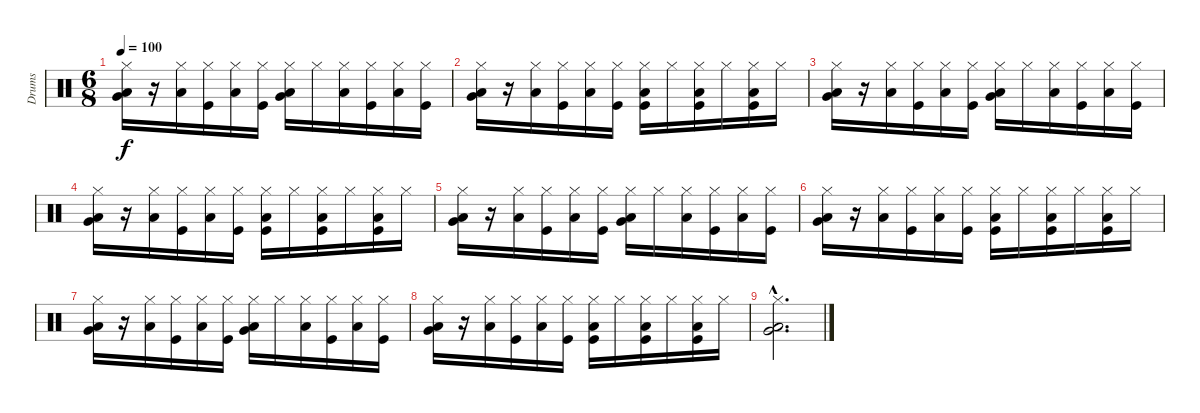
\track ("Drums" "Drums") {instrument percussion}
\staff {score}
\articulation defaults
\ts (6 8)
\tempo 100
\clef neutral
\ks c
("Hi-Hat (closed)" "Low Floor Tom (hit)" "Very Low Tom (hit)").16{dy f} r.16 ("Hi-Hat (closed)" "Low Floor Tom (hit)").16 ("Hi-Hat (closed)" "Kick (hit)").16 ("Hi-Hat (closed)" "Low Floor Tom (hit)").16 ("Hi-Hat (closed)" "Kick (hit)").16 ("Hi-Hat (closed)" "Low Floor Tom (hit)" "Very Low Tom (hit)").16 "Hi-Hat (closed)".16 ("Hi-Hat (closed)" "Low Floor Tom (hit)").16 ("Hi-Hat (closed)" "Kick (hit)").16 ("Hi-Hat (closed)" "Low Floor Tom (hit)").16 ("Hi-Hat (closed)" "Kick (hit)").16 |
("Hi-Hat (closed)" "Low Floor Tom (hit)" "Very Low Tom (hit)").16 r.16 ("Hi-Hat (closed)" "Low Floor Tom (hit)").16 ("Hi-Hat (closed)" "Kick (hit)").16 ("Hi-Hat (closed)" "Low Floor Tom (hit)").16 ("Hi-Hat (closed)" "Kick (hit)").16 ("Hi-Hat (closed)" "Low Floor Tom (hit)" "Kick (hit)").16 "Hi-Hat (closed)".16 ("Hi-Hat (closed)" "Low Floor Tom (hit)" "Kick (hit)").16 "Hi-Hat (closed)".16 ("Hi-Hat (closed)" "Low Floor Tom (hit)" "Kick (hit)").16 "Hi-Hat (closed)".16 |
("Hi-Hat (closed)" "Low Floor Tom (hit)" "Very Low Tom (hit)").16 r.16 ("Hi-Hat (closed)" "Low Floor Tom (hit)").16 ("Hi-Hat (closed)" "Kick (hit)").16 ("Hi-Hat (closed)" "Low Floor Tom (hit)").16 ("Hi-Hat (closed)" "Kick (hit)").16 ("Hi-Hat (closed)" "Low Floor Tom (hit)" "Very Low Tom (hit)").16 "Hi-Hat (closed)".16 ("Hi-Hat (closed)" "Low Floor Tom (hit)").16 ("Hi-Hat (closed)" "Kick (hit)").16 ("Hi-Hat (closed)" "Low Floor Tom (hit)").16 ("Hi-Hat (closed)" "Kick (hit)").16 |
("Hi-Hat (closed)" "Low Floor Tom (hit)" "Very Low Tom (hit)").16 r.16 ("Hi-Hat (closed)" "Low Floor Tom (hit)").16 ("Hi-Hat (closed)" "Kick (hit)").16 ("Hi-Hat (closed)" "Low Floor Tom (hit)").16 ("Hi-Hat (closed)" "Kick (hit)").16 ("Hi-Hat (closed)" "Low Floor Tom (hit)" "Kick (hit)").16 "Hi-Hat (closed)".16 ("Hi-Hat (closed)" "Low Floor Tom (hit)" "Kick (hit)").16 "Hi-Hat (closed)".16 ("Hi-Hat (closed)" "Low Floor Tom (hit)" "Kick (hit)").16 "Hi-Hat (closed)".16 |
("Hi-Hat (closed)" "Low Floor Tom (hit)" "Very Low Tom (hit)").16 r.16 ("Hi-Hat (closed)" "Low Floor Tom (hit)").16 ("Hi-Hat (closed)" "Kick (hit)").16 ("Hi-Hat (closed)" "Low Floor Tom (hit)").16 ("Hi-Hat (closed)" "Kick (hit)").16 ("Hi-Hat (closed)" "Low Floor Tom (hit)" "Very Low Tom (hit)").16 "Hi-Hat (closed)".16 ("Hi-Hat (closed)" "Low Floor Tom (hit)").16 ("Hi-Hat (closed)" "Kick (hit)").16 ("Hi-Hat (closed)" "Low Floor Tom (hit)").16 ("Hi-Hat (closed)" "Kick (hit)").16 |
("Hi-Hat (closed)" "Low Floor Tom (hit)" "Very Low Tom (hit)").16 r.16 ("Hi-Hat (closed)" "Low Floor Tom (hit)").16 ("Hi-Hat (closed)" "Kick (hit)").16 ("Hi-Hat (closed)" "Low Floor Tom (hit)").16 ("Hi-Hat (closed)" "Kick (hit)").16 ("Hi-Hat (closed)" "Low Floor Tom (hit)" "Kick (hit)").16 "Hi-Hat (closed)".16 ("Hi-Hat (closed)" "Low Floor Tom (hit)" "Kick (hit)").16 "Hi-Hat (closed)".16 ("Hi-Hat (closed)" "Low Floor Tom (hit)" "Kick (hit)").16 "Hi-Hat (closed)".16 |
("Hi-Hat (closed)" "Low Floor Tom (hit)" "Very Low Tom (hit)").16 r.16 ("Hi-Hat (closed)" "Low Floor Tom (hit)").16 ("Hi-Hat (closed)" "Kick (hit)").16 ("Hi-Hat (closed)" "Low Floor Tom (hit)").16 ("Hi-Hat (closed)" "Kick (hit)").16 ("Hi-Hat (closed)" "Low Floor Tom (hit)" "Very Low Tom (hit)").16 "Hi-Hat (closed)".16 ("Hi-Hat (closed)" "Low Floor Tom (hit)").16 ("Hi-Hat (closed)" "Kick (hit)").16 ("Hi-Hat (closed)" "Low Floor Tom (hit)").16 ("Hi-Hat (closed)" "Kick (hit)").16 |
("Hi-Hat (closed)" "Low Floor Tom (hit)" "Very Low Tom (hit)").16 r.16 ("Hi-Hat (closed)" "Low Floor Tom (hit)").16 ("Hi-Hat (closed)" "Kick (hit)").16 ("Hi-Hat (closed)" "Low Floor Tom (hit)").16 ("Hi-Hat (closed)" "Kick (hit)").16 ("Hi-Hat (closed)" "Low Floor Tom (hit)" "Kick (hit)").16 "Hi-Hat (closed)".16 ("Hi-Hat (closed)" "Low Floor Tom (hit)" "Kick (hit)").16 "Hi-Hat (closed)".16 ("Hi-Hat (closed)" "Low Floor Tom (hit)" "Kick (hit)").16 "Hi-Hat (closed)".16 |
("Hi-Hat (closed)"{hac} "Low Floor Tom (hit)"{hac} "Very Low Tom (hit)"{hac}).2{d}
